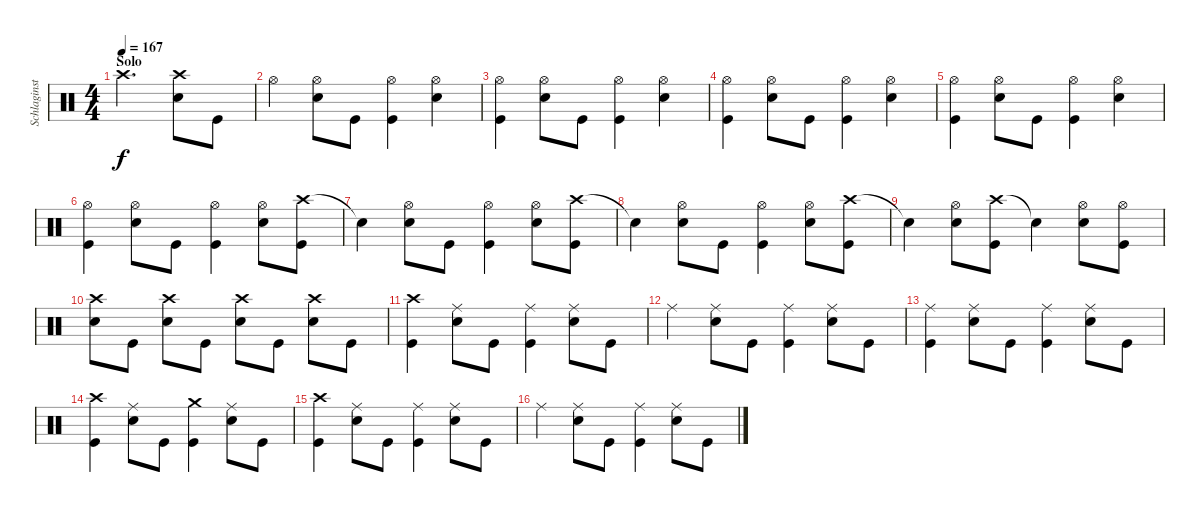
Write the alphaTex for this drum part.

\track ("Schlaginstrumente - Auswahl" "Schlaginst") {instrument percussion}
\staff {score}
\articulation defaults
\ts (4 4)
\section ("" "Solo")
\tempo 167
\clef neutral
\ks c "Crash high (hit)".2{d dy f}
("Crash high (hit)" "Snare (hit) 2").8 "Kick (hit)".8 |
"Hi-Hat (open)".4 ("Hi-Hat (open)" "Snare (hit) 2").8 "Kick (hit)".8 ("Hi-Hat (open)" "Kick (hit)").4 ("Hi-Hat (open)" "Snare (hit) 2").4 |
("Hi-Hat (open)" "Kick (hit)").4 ("Hi-Hat (open)" "Snare (hit) 2").8 "Kick (hit)".8 ("Hi-Hat (open)" "Kick (hit)").4 ("Hi-Hat (open)" "Snare (hit) 2").4 |
("Hi-Hat (open)" "Kick (hit)").4 ("Hi-Hat (open)" "Snare (hit) 2").8 "Kick (hit)".8 ("Hi-Hat (open)" "Kick (hit)").4 ("Hi-Hat (open)" "Snare (hit) 2").4 |
("Hi-Hat (open)" "Kick (hit)").4 ("Hi-Hat (open)" "Snare (hit) 2").8 "Kick (hit)".8 ("Hi-Hat (open)" "Kick (hit)").4 ("Hi-Hat (open)" "Snare (hit) 2").4 |
("Hi-Hat (open)" "Kick (hit)").4 ("Hi-Hat (open)" "Snare (hit) 2").8 "Kick (hit)".8 ("Hi-Hat (open)" "Kick (hit)").4 ("Hi-Hat (open)" "Snare (hit) 2").8 ("Crash high (hit)" "Kick (hit)").8 |
"Snare (hit)"{t}.4 ("Hi-Hat (open)" "Snare (hit) 2").8 "Kick (hit)".8 ("Hi-Hat (open)" "Kick (hit)").4 ("Hi-Hat (open)" "Snare (hit) 2").8 ("Crash high (hit)" "Kick (hit)").8 |
"Snare (hit)"{t}.4 ("Hi-Hat (open)" "Snare (hit) 2").8 "Kick (hit)".8 ("Hi-Hat (open)" "Kick (hit)").4 ("Hi-Hat (open)" "Snare (hit) 2").8 ("Crash high (hit)" "Kick (hit)").8 |
"Snare (hit)"{t}.4 ("Hi-Hat (open)" "Snare (hit) 2").8 ("Crash high (hit)" "Kick (hit)").8 "Snare (hit)"{t}.4 ("Hi-Hat (open)" "Snare (hit) 2").8 ("Hi-Hat (open)" "Kick (hit)").8 |
("Crash high (hit)" "Snare (hit) 2").8 "Kick (hit)".8 ("Crash high (hit)" "Snare (hit) 2").8 "Kick (hit)".8 ("Crash high (hit)" "Snare (hit) 2").8 "Kick (hit)".8 ("Crash high (hit)" "Snare (hit) 2").8 "Kick (hit)".8 |
("Crash high (hit)" "Kick (hit)").4 ("Ride (middle)" "Snare (hit) 2").8 "Kick (hit)".8 ("Ride (middle)" "Kick (hit)").4 ("Ride (middle)" "Snare (hit) 2").8 "Kick (hit)".8 |
"Ride (middle)".4 ("Ride (middle)" "Snare (hit) 2").8 "Kick (hit)".8 ("Ride (middle)" "Kick (hit)").4 ("Ride (middle)" "Snare (hit) 2").8 "Kick (hit)".8 |
("Ride (middle)" "Kick (hit)").4 ("Ride (middle)" "Snare (hit) 2").8 "Kick (hit)".8 ("Ride (middle)" "Kick (hit)").4 ("Ride (middle)" "Snare (hit) 2").8 "Kick (hit)".8 |
("Crash high (hit)" "Kick (hit)").4 ("Ride (middle)" "Snare (hit) 2").8 "Kick (hit)".8 ("Crash medium (hit)" "Kick (hit)").4 ("Ride (middle)" "Snare (hit) 2").8 "Kick (hit)".8 |
("Crash high (hit)" "Kick (hit)").4 ("Ride (middle)" "Snare (hit) 2").8 "Kick (hit)".8 ("Ride (middle)" "Kick (hit)").4 ("Ride (middle)" "Snare (hit) 2").8 "Kick (hit)".8 |
"Ride (middle)".4 ("Ride (middle)" "Snare (hit) 2").8 "Kick (hit)".8 ("Ride (middle)" "Kick (hit)").4 ("Ride (middle)" "Snare (hit) 2").8 "Kick (hit)".8
